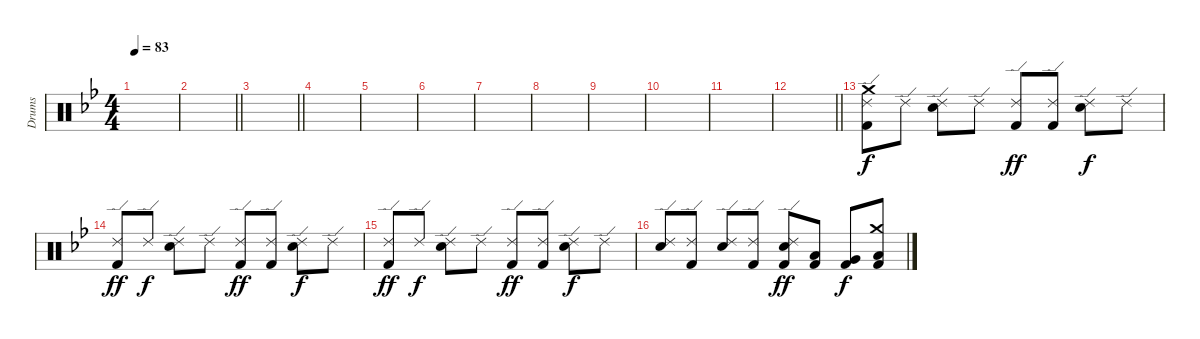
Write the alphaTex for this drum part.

\track ("Drums" "Drums") {instrument percussion}
\staff {score}
\articulation defaults
\ts (4 4)
\tempo 83
\clef neutral
\ks gminor
|
\barLineRight lightlight
|
\barLineRight lightlight
|
|
|
|
|
|
|
|
|
\barLineRight lightlight
|
\section ("" "")
("Ride (edge) 2" "Kick (hit) 2" "Crash medium (hit)").8 "Ride (edge) 2".8{dy f} ("Ride (edge) 2" "Electric Snare (hit)").8 "Ride (edge) 2".8 ("Ride (edge) 2" "Kick (hit) 2").8{dy ff} ("Ride (edge) 2" "Kick (hit) 2").8 ("Ride (edge) 2" "Electric Snare (hit)").8{dy f} "Ride (edge) 2".8 |
("Ride (edge) 2" "Kick (hit) 2").8{dy ff} "Ride (edge) 2".8{dy f} ("Ride (edge) 2" "Electric Snare (hit)").8 "Ride (edge) 2".8 ("Ride (edge) 2" "Kick (hit) 2").8{dy ff} ("Ride (edge) 2" "Kick (hit) 2").8 ("Ride (edge) 2" "Electric Snare (hit)").8{dy f} "Ride (edge) 2".8 |
("Ride (edge) 2" "Kick (hit) 2").8{dy ff} "Ride (edge) 2".8{dy f} ("Ride (edge) 2" "Electric Snare (hit)").8 "Ride (edge) 2".8 ("Ride (edge) 2" "Kick (hit) 2").8{dy ff} ("Ride (edge) 2" "Kick (hit) 2").8 ("Ride (edge) 2" "Electric Snare (hit)").8{dy f} "Ride (edge) 2".8 |
("Ride (edge) 2" "Electric Snare (hit)").8 ("Ride (edge) 2" "Kick (hit) 2").8 ("Ride (edge) 2" "Electric Snare (hit)").8 ("Ride (edge) 2" "Kick (hit) 2").8 ("Ride (edge) 2" "Kick (hit) 2" "Electric Snare (hit)").8{dy ff} ("Kick (hit) 2" "Low Tom (hit)").8 ("Kick (hit) 2" "Very Low Tom (hit)").8{dy f} ("Kick (hit) 2" "Low Floor Tom (hit)" "Crash medium (hit)").8
